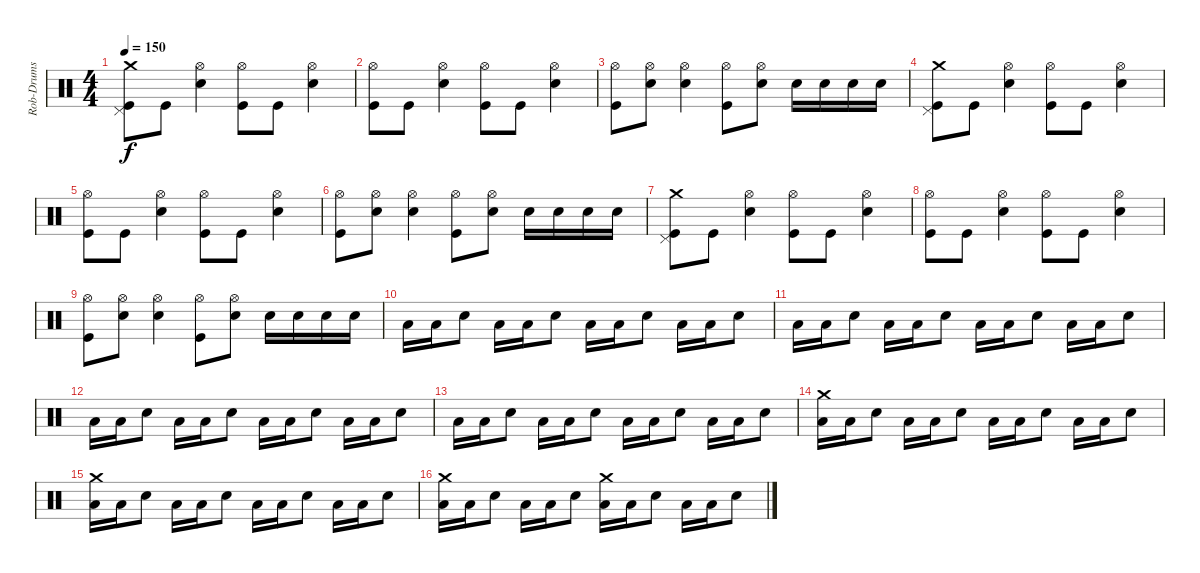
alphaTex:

\track ("Rob-Drums" "Rob-Drums") {instrument percussion}
\staff {score}
\articulation defaults
\ts (4 4)
\tempo 150
\clef neutral
\ks c
("Crash medium (hit)" "Pedal Hi-Hat (hit)" "Kick (hit)").8{dy f} "Kick (hit)".8 ("Hi-Hat (open)" "Snare (hit) 2").4 ("Hi-Hat (open)" "Kick (hit)").8 "Kick (hit)".8 ("Hi-Hat (open)" "Snare (hit) 2").4 |
("Hi-Hat (open)" "Kick (hit)").8 "Kick (hit)".8 ("Hi-Hat (open)" "Snare (hit) 2").4 ("Hi-Hat (open)" "Kick (hit)").8 "Kick (hit)".8 ("Hi-Hat (open)" "Snare (hit) 2").4 |
("Hi-Hat (open)" "Kick (hit)").8 ("Hi-Hat (open)" "Snare (hit) 2").8 ("Hi-Hat (open)" "Snare (hit) 2").4 ("Hi-Hat (open)" "Kick (hit)").8 ("Hi-Hat (open)" "Snare (hit) 2").8 "Snare (hit) 2".16 "Snare (hit) 2".16 "Snare (hit) 2".16 "Snare (hit) 2".16 |
("Crash medium (hit)" "Pedal Hi-Hat (hit)" "Kick (hit)").8 "Kick (hit)".8 ("Hi-Hat (open)" "Snare (hit) 2").4 ("Hi-Hat (open)" "Kick (hit)").8 "Kick (hit)".8 ("Hi-Hat (open)" "Snare (hit) 2").4 |
("Hi-Hat (open)" "Kick (hit)").8 "Kick (hit)".8 ("Hi-Hat (open)" "Snare (hit) 2").4 ("Hi-Hat (open)" "Kick (hit)").8 "Kick (hit)".8 ("Hi-Hat (open)" "Snare (hit) 2").4 |
("Hi-Hat (open)" "Kick (hit)").8 ("Hi-Hat (open)" "Snare (hit) 2").8 ("Hi-Hat (open)" "Snare (hit) 2").4 ("Hi-Hat (open)" "Kick (hit)").8 ("Hi-Hat (open)" "Snare (hit) 2").8 "Snare (hit) 2".16 "Snare (hit) 2".16 "Snare (hit) 2".16 "Snare (hit) 2".16 |
("Crash medium (hit)" "Pedal Hi-Hat (hit)" "Kick (hit)").8 "Kick (hit)".8 ("Hi-Hat (open)" "Snare (hit) 2").4 ("Hi-Hat (open)" "Kick (hit)").8 "Kick (hit)".8 ("Hi-Hat (open)" "Snare (hit) 2").4 |
("Hi-Hat (open)" "Kick (hit)").8 "Kick (hit)".8 ("Hi-Hat (open)" "Snare (hit) 2").4 ("Hi-Hat (open)" "Kick (hit)").8 "Kick (hit)".8 ("Hi-Hat (open)" "Snare (hit) 2").4 |
("Hi-Hat (open)" "Kick (hit)").8 ("Hi-Hat (open)" "Snare (hit) 2").8 ("Hi-Hat (open)" "Snare (hit) 2").4 ("Hi-Hat (open)" "Kick (hit)").8 ("Hi-Hat (open)" "Snare (hit) 2").8 "Snare (hit) 2".16 "Snare (hit) 2".16 "Snare (hit) 2".16 "Snare (hit) 2".16 |
"Low Floor Tom (hit)".16 "Low Floor Tom (hit)".16 "Snare (hit) 2".8 "Low Floor Tom (hit)".16 "Low Floor Tom (hit)".16 "Snare (hit) 2".8 "Low Floor Tom (hit)".16 "Low Floor Tom (hit)".16 "Snare (hit) 2".8 "Low Floor Tom (hit)".16 "Low Floor Tom (hit)".16 "Snare (hit) 2".8 |
"Low Floor Tom (hit)".16 "Low Floor Tom (hit)".16 "Snare (hit) 2".8 "Low Floor Tom (hit)".16 "Low Floor Tom (hit)".16 "Snare (hit) 2".8 "Low Floor Tom (hit)".16 "Low Floor Tom (hit)".16 "Snare (hit) 2".8 "Low Floor Tom (hit)".16 "Low Floor Tom (hit)".16 "Snare (hit) 2".8 |
"Low Floor Tom (hit)".16 "Low Floor Tom (hit)".16 "Snare (hit) 2".8 "Low Floor Tom (hit)".16 "Low Floor Tom (hit)".16 "Snare (hit) 2".8 "Low Floor Tom (hit)".16 "Low Floor Tom (hit)".16 "Snare (hit) 2".8 "Low Floor Tom (hit)".16 "Low Floor Tom (hit)".16 "Snare (hit) 2".8 |
"Low Floor Tom (hit)".16 "Low Floor Tom (hit)".16 "Snare (hit) 2".8 "Low Floor Tom (hit)".16 "Low Floor Tom (hit)".16 "Snare (hit) 2".8 "Low Floor Tom (hit)".16 "Low Floor Tom (hit)".16 "Snare (hit) 2".8 "Low Floor Tom (hit)".16 "Low Floor Tom (hit)".16 "Snare (hit) 2".8 |
("Crash medium (hit)" "Low Floor Tom (hit)").16 "Low Floor Tom (hit)".16 "Snare (hit) 2".8 "Low Floor Tom (hit)".16 "Low Floor Tom (hit)".16 "Snare (hit) 2".8 "Low Floor Tom (hit)".16 "Low Floor Tom (hit)".16 "Snare (hit) 2".8 "Low Floor Tom (hit)".16 "Low Floor Tom (hit)".16 "Snare (hit) 2".8 |
("Crash medium (hit)" "Low Floor Tom (hit)").16 "Low Floor Tom (hit)".16 "Snare (hit) 2".8 "Low Floor Tom (hit)".16 "Low Floor Tom (hit)".16 "Snare (hit) 2".8 "Low Floor Tom (hit)".16 "Low Floor Tom (hit)".16 "Snare (hit) 2".8 "Low Floor Tom (hit)".16 "Low Floor Tom (hit)".16 "Snare (hit) 2".8 |
("Crash medium (hit)" "Low Floor Tom (hit)").16 "Low Floor Tom (hit)".16 "Snare (hit) 2".8 "Low Floor Tom (hit)".16 "Low Floor Tom (hit)".16 "Snare (hit) 2".8 ("Crash medium (hit)" "Low Floor Tom (hit)").16 "Low Floor Tom (hit)".16 "Snare (hit) 2".8 "Low Floor Tom (hit)".16 "Low Floor Tom (hit)".16 "Snare (hit) 2".8
